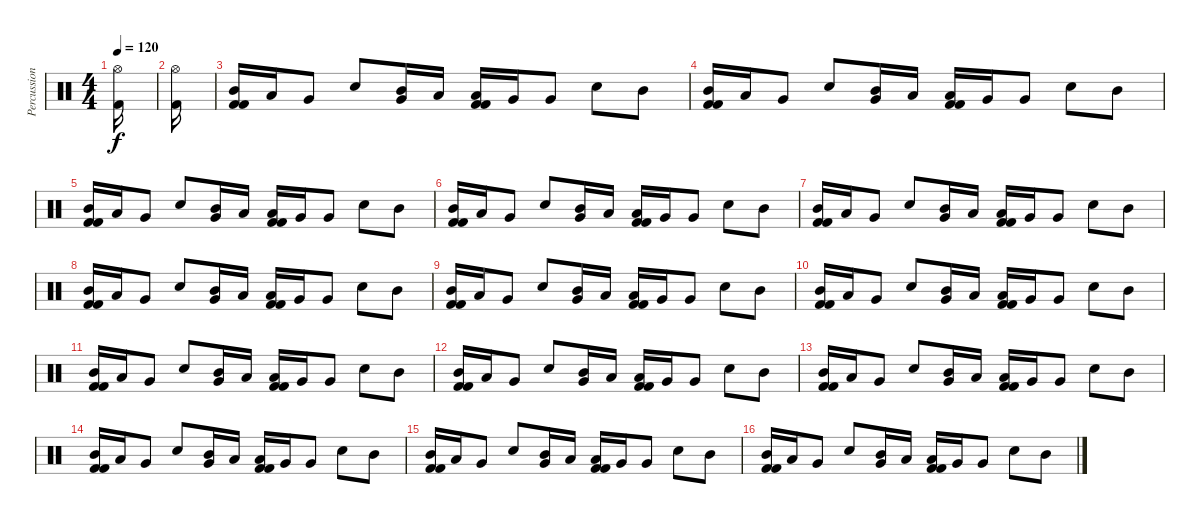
\track ("Percussions" "Percussion") {instrument percussion}
\staff {score}
\articulation defaults
\ts (4 4)
\tempo 120
\clef neutral
\ks c
("Hi-Hat (open)" "Kick (hit) 2").16{dy f} |
("Hi-Hat (open)" "Kick (hit) 2").16 |
("Kick (hit) 2" "Mid Tom (hit)" "Kick (hit) 2").16 "Low Tom (hit)".16 "Very Low Tom (hit)".8 "Snare (hit) 2".8 ("Mid Tom (hit)" "Very Low Tom (hit)").16 "Low Tom (hit)".16 ("Kick (hit) 2" "Low Tom (hit)" "Kick (hit) 2").16 "Very Low Tom (hit)".16 "Very Low Tom (hit)".8 "Snare (hit) 2".8 "Mid Tom (hit)".8 |
("Kick (hit) 2" "Mid Tom (hit)" "Kick (hit) 2").16 "Low Tom (hit)".16 "Very Low Tom (hit)".8 "Snare (hit) 2".8 ("Mid Tom (hit)" "Very Low Tom (hit)").16 "Low Tom (hit)".16 ("Kick (hit) 2" "Low Tom (hit)" "Kick (hit) 2").16 "Very Low Tom (hit)".16 "Very Low Tom (hit)".8 "Snare (hit) 2".8 "Mid Tom (hit)".8 |
("Kick (hit) 2" "Mid Tom (hit)" "Kick (hit) 2").16 "Low Tom (hit)".16 "Very Low Tom (hit)".8 "Snare (hit) 2".8 ("Mid Tom (hit)" "Very Low Tom (hit)").16 "Low Tom (hit)".16 ("Kick (hit) 2" "Low Tom (hit)" "Kick (hit) 2").16 "Very Low Tom (hit)".16 "Very Low Tom (hit)".8 "Snare (hit) 2".8 "Mid Tom (hit)".8 |
("Kick (hit) 2" "Mid Tom (hit)" "Kick (hit) 2").16 "Low Tom (hit)".16 "Very Low Tom (hit)".8 "Snare (hit) 2".8 ("Mid Tom (hit)" "Very Low Tom (hit)").16 "Low Tom (hit)".16 ("Kick (hit) 2" "Low Tom (hit)" "Kick (hit) 2").16 "Very Low Tom (hit)".16 "Very Low Tom (hit)".8 "Snare (hit) 2".8 "Mid Tom (hit)".8 |
("Kick (hit) 2" "Mid Tom (hit)" "Kick (hit) 2").16 "Low Tom (hit)".16 "Very Low Tom (hit)".8 "Snare (hit) 2".8 ("Mid Tom (hit)" "Very Low Tom (hit)").16 "Low Tom (hit)".16 ("Kick (hit) 2" "Low Tom (hit)" "Kick (hit) 2").16 "Very Low Tom (hit)".16 "Very Low Tom (hit)".8 "Snare (hit) 2".8 "Mid Tom (hit)".8 |
("Kick (hit) 2" "Mid Tom (hit)" "Kick (hit) 2").16 "Low Tom (hit)".16 "Very Low Tom (hit)".8 "Snare (hit) 2".8 ("Mid Tom (hit)" "Very Low Tom (hit)").16 "Low Tom (hit)".16 ("Kick (hit) 2" "Low Tom (hit)" "Kick (hit) 2").16 "Very Low Tom (hit)".16 "Very Low Tom (hit)".8 "Snare (hit) 2".8 "Mid Tom (hit)".8 |
("Kick (hit) 2" "Mid Tom (hit)" "Kick (hit) 2").16 "Low Tom (hit)".16 "Very Low Tom (hit)".8 "Snare (hit) 2".8 ("Mid Tom (hit)" "Very Low Tom (hit)").16 "Low Tom (hit)".16 ("Kick (hit) 2" "Low Tom (hit)" "Kick (hit) 2").16 "Very Low Tom (hit)".16 "Very Low Tom (hit)".8 "Snare (hit) 2".8 "Mid Tom (hit)".8 |
("Kick (hit) 2" "Mid Tom (hit)" "Kick (hit) 2").16 "Low Tom (hit)".16 "Very Low Tom (hit)".8 "Snare (hit) 2".8 ("Mid Tom (hit)" "Very Low Tom (hit)").16 "Low Tom (hit)".16 ("Kick (hit) 2" "Low Tom (hit)" "Kick (hit) 2").16 "Very Low Tom (hit)".16 "Very Low Tom (hit)".8 "Snare (hit) 2".8 "Mid Tom (hit)".8 |
("Kick (hit) 2" "Mid Tom (hit)" "Kick (hit) 2").16 "Low Tom (hit)".16 "Very Low Tom (hit)".8 "Snare (hit) 2".8 ("Mid Tom (hit)" "Very Low Tom (hit)").16 "Low Tom (hit)".16 ("Kick (hit) 2" "Low Tom (hit)" "Kick (hit) 2").16 "Very Low Tom (hit)".16 "Very Low Tom (hit)".8 "Snare (hit) 2".8 "Mid Tom (hit)".8 |
("Kick (hit) 2" "Mid Tom (hit)" "Kick (hit) 2").16 "Low Tom (hit)".16 "Very Low Tom (hit)".8 "Snare (hit) 2".8 ("Mid Tom (hit)" "Very Low Tom (hit)").16 "Low Tom (hit)".16 ("Kick (hit) 2" "Low Tom (hit)" "Kick (hit) 2").16 "Very Low Tom (hit)".16 "Very Low Tom (hit)".8 "Snare (hit) 2".8 "Mid Tom (hit)".8 |
("Kick (hit) 2" "Mid Tom (hit)" "Kick (hit) 2").16 "Low Tom (hit)".16 "Very Low Tom (hit)".8 "Snare (hit) 2".8 ("Mid Tom (hit)" "Very Low Tom (hit)").16 "Low Tom (hit)".16 ("Kick (hit) 2" "Low Tom (hit)" "Kick (hit) 2").16 "Very Low Tom (hit)".16 "Very Low Tom (hit)".8 "Snare (hit) 2".8 "Mid Tom (hit)".8 |
("Kick (hit) 2" "Mid Tom (hit)" "Kick (hit) 2").16 "Low Tom (hit)".16 "Very Low Tom (hit)".8 "Snare (hit) 2".8 ("Mid Tom (hit)" "Very Low Tom (hit)").16 "Low Tom (hit)".16 ("Kick (hit) 2" "Low Tom (hit)" "Kick (hit) 2").16 "Very Low Tom (hit)".16 "Very Low Tom (hit)".8 "Snare (hit) 2".8 "Mid Tom (hit)".8 |
("Kick (hit) 2" "Mid Tom (hit)" "Kick (hit) 2").16 "Low Tom (hit)".16 "Very Low Tom (hit)".8 "Snare (hit) 2".8 ("Mid Tom (hit)" "Very Low Tom (hit)").16 "Low Tom (hit)".16 ("Kick (hit) 2" "Low Tom (hit)" "Kick (hit) 2").16 "Very Low Tom (hit)".16 "Very Low Tom (hit)".8 "Snare (hit) 2".8 "Mid Tom (hit)".8 |
("Kick (hit) 2" "Mid Tom (hit)" "Kick (hit) 2").16 "Low Tom (hit)".16 "Very Low Tom (hit)".8 "Snare (hit) 2".8 ("Mid Tom (hit)" "Very Low Tom (hit)").16 "Low Tom (hit)".16 ("Kick (hit) 2" "Low Tom (hit)" "Kick (hit) 2").16 "Very Low Tom (hit)".16 "Very Low Tom (hit)".8 "Snare (hit) 2".8 "Mid Tom (hit)".8
